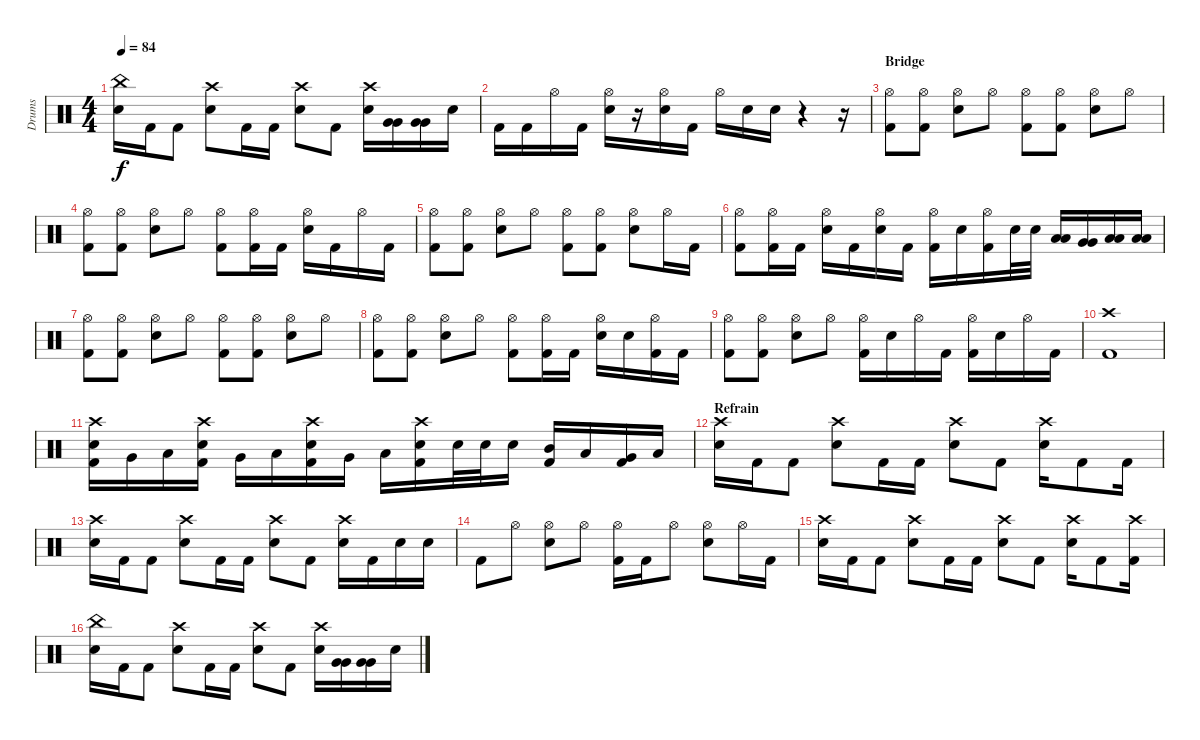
\track ("Drums" "Drums") {instrument percussion}
\staff {score}
\articulation defaults
\ts (4 4)
\tempo 84
\clef neutral
\ks c
("China (hit)" "Snare (hit) 2").16{dy f} "Kick (hit) 2".16 "Kick (hit) 2".8 ("Crash high (hit)" "Snare (hit) 2").8 "Kick (hit) 2".16 "Kick (hit) 2".16 ("Crash high (hit)" "Snare (hit) 2").8 "Kick (hit) 2".8 ("Crash high (hit)" "Snare (hit) 2").16 ("Very Low Tom (hit)" "Very Low Tom (hit)").16 ("Very Low Tom (hit)" "Very Low Tom (hit)").16 "Snare (hit) 2".16 |
"Kick (hit) 2".16 "Kick (hit) 2".16 "Hi-Hat (open)".16 "Kick (hit) 2".16 ("Hi-Hat (open)" "Snare (hit) 2").16 r.16 ("Hi-Hat (open)" "Snare (hit) 2").16 "Kick (hit) 2".16 "Hi-Hat (open)".16 "Snare (hit) 2".16 "Snare (hit) 2".16 r.4 r.16 |
\section ("" "Bridge")
("Hi-Hat (open)" "Kick (hit) 2").8 ("Hi-Hat (open)" "Kick (hit) 2").8 ("Hi-Hat (open)" "Snare (hit) 2").8 "Hi-Hat (open)".8 ("Hi-Hat (open)" "Kick (hit) 2").8 ("Hi-Hat (open)" "Kick (hit) 2").8 ("Hi-Hat (open)" "Snare (hit) 2").8 "Hi-Hat (open)".8 |
("Hi-Hat (open)" "Kick (hit) 2").8 ("Hi-Hat (open)" "Kick (hit) 2").8 ("Hi-Hat (open)" "Snare (hit) 2").8 "Hi-Hat (open)".8 ("Hi-Hat (open)" "Kick (hit) 2").8 ("Hi-Hat (open)" "Kick (hit) 2").16 "Kick (hit) 2".16 ("Hi-Hat (open)" "Snare (hit) 2").16 "Kick (hit) 2".16 "Hi-Hat (open)".16 "Kick (hit) 2".16 |
("Hi-Hat (open)" "Kick (hit) 2").8 ("Hi-Hat (open)" "Kick (hit) 2").8 ("Hi-Hat (open)" "Snare (hit) 2").8 "Hi-Hat (open)".8 ("Hi-Hat (open)" "Kick (hit) 2").8 ("Hi-Hat (open)" "Kick (hit) 2").8 ("Hi-Hat (open)" "Snare (hit) 2").8 "Hi-Hat (open)".16 "Kick (hit) 2".16 |
("Hi-Hat (open)" "Kick (hit) 2").8 ("Hi-Hat (open)" "Kick (hit) 2").16 "Kick (hit) 2".16 ("Hi-Hat (open)" "Snare (hit) 2").16 "Kick (hit) 2".16 ("Hi-Hat (open)" "Snare (hit) 2").16 "Kick (hit) 2".16 ("Hi-Hat (open)" "Kick (hit) 2").16 "Snare (hit) 2".16 ("Hi-Hat (open)" "Kick (hit) 2").16 "Snare (hit) 2".32 "Snare (hit) 2".32 ("Low Tom (hit)" "Low Tom (hit)").16 ("Very Low Tom (hit)" "Very Low Tom (hit)").16 ("Low Floor Tom (hit)" "Low Floor Tom (hit)").16 ("Low Floor Tom (hit)" "Low Floor Tom (hit)").16 |
("Hi-Hat (open)" "Kick (hit) 2").8 ("Hi-Hat (open)" "Kick (hit) 2").8 ("Hi-Hat (open)" "Snare (hit) 2").8 "Hi-Hat (open)".8 ("Hi-Hat (open)" "Kick (hit) 2").8 ("Hi-Hat (open)" "Kick (hit) 2").8 ("Hi-Hat (open)" "Snare (hit) 2").8 "Hi-Hat (open)".8 |
("Hi-Hat (open)" "Kick (hit) 2").8 ("Hi-Hat (open)" "Kick (hit) 2").8 ("Hi-Hat (open)" "Snare (hit) 2").8 "Hi-Hat (open)".8 ("Hi-Hat (open)" "Kick (hit) 2").8 ("Hi-Hat (open)" "Kick (hit) 2").16 "Kick (hit) 2".16 ("Hi-Hat (open)" "Snare (hit) 2").16 "Snare (hit) 2".16 ("Hi-Hat (open)" "Kick (hit) 2").16 "Kick (hit) 2".16 |
("Hi-Hat (open)" "Kick (hit) 2").8 ("Hi-Hat (open)" "Kick (hit) 2").8 ("Hi-Hat (open)" "Snare (hit) 2").8 "Hi-Hat (open)".8 ("Hi-Hat (open)" "Kick (hit) 2").16 "Snare (hit) 2".16 "Hi-Hat (open)".16 "Kick (hit) 2".16 ("Hi-Hat (open)" "Kick (hit) 2").16 "Snare (hit) 2".16 "Hi-Hat (open)".16 "Kick (hit) 2".16 |
("Crash high (hit)" "Kick (hit) 2").1 |
("Crash high (hit)" "Snare (hit) 2" "Kick (hit) 2").16 "Very Low Tom (hit)".16 "Low Floor Tom (hit)".16 ("Crash high (hit)" "Snare (hit) 2" "Kick (hit) 2").16 "Very Low Tom (hit)".16 "Low Floor Tom (hit)".16 ("Crash high (hit)" "Snare (hit) 2" "Kick (hit) 2").16 "Very Low Tom (hit)".16 "Low Floor Tom (hit)".16 ("Crash high (hit)" "Snare (hit) 2" "Kick (hit) 2").16 "Snare (hit) 2".32 "Snare (hit) 2".32 "Snare (hit) 2".16 ("Mid Tom (hit)" "Kick (hit) 2").16 "Low Tom (hit)".16 ("Very Low Tom (hit)" "Kick (hit) 2").16 "Low Floor Tom (hit)".16 |
\section ("" "Refrain")
("Crash high (hit)" "Snare (hit) 2").16 "Kick (hit) 2".16 "Kick (hit) 2".8 ("Crash high (hit)" "Snare (hit) 2").8 "Kick (hit) 2".16 "Kick (hit) 2".16 ("Crash high (hit)" "Snare (hit) 2").8 "Kick (hit) 2".8 ("Crash high (hit)" "Snare (hit) 2").16 "Kick (hit) 2".8 "Kick (hit) 2".16 |
("Crash high (hit)" "Snare (hit) 2").16 "Kick (hit) 2".16 "Kick (hit) 2".8 ("Crash high (hit)" "Snare (hit) 2").8 "Kick (hit) 2".16 "Kick (hit) 2".16 ("Crash high (hit)" "Snare (hit) 2").8 "Kick (hit) 2".8 ("Crash high (hit)" "Snare (hit) 2").16 "Kick (hit) 2".16 "Snare (hit) 2".16 "Snare (hit) 2".16 |
"Kick (hit) 2".8 "Hi-Hat (open)".8 ("Hi-Hat (open)" "Snare (hit) 2").8 "Hi-Hat (open)".8 ("Hi-Hat (open)" "Kick (hit) 2").16 "Kick (hit) 2".16 "Hi-Hat (open)".8 ("Hi-Hat (open)" "Snare (hit) 2").8 "Hi-Hat (open)".16 "Kick (hit) 2".16 |
("Crash high (hit)" "Snare (hit) 2").16 "Kick (hit) 2".16 "Kick (hit) 2".8 ("Crash high (hit)" "Snare (hit) 2").8 "Kick (hit) 2".16 "Kick (hit) 2".16 ("Crash high (hit)" "Snare (hit) 2").8 "Kick (hit) 2".8 ("Crash high (hit)" "Snare (hit) 2").16 "Kick (hit) 2".8 ("Crash high (hit)" "Kick (hit) 2").16 |
("China (hit)" "Snare (hit) 2").16 "Kick (hit) 2".16 "Kick (hit) 2".8 ("Crash high (hit)" "Snare (hit) 2").8 "Kick (hit) 2".16 "Kick (hit) 2".16 ("Crash high (hit)" "Snare (hit) 2").8 "Kick (hit) 2".8 ("Crash high (hit)" "Snare (hit) 2").16 ("Very Low Tom (hit)" "Very Low Tom (hit)").16 ("Very Low Tom (hit)" "Very Low Tom (hit)").16 "Snare (hit) 2".16
